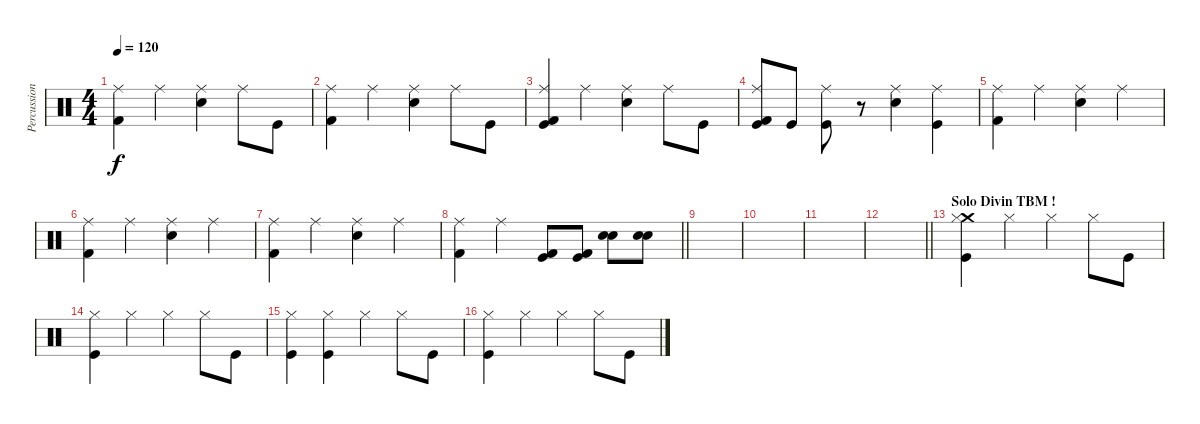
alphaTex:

\track ("Percussions" "Percussion") {instrument percussion}
\staff {score}
\articulation defaults
\ts (4 4)
\tempo 120
\clef neutral
\ks c
("Kick (hit) 2" "Ride (middle)").4{dy f} "Ride (middle)".4 ("Electric Snare (hit)" "Ride (middle)").4 "Ride (middle)".8 "Kick (hit)".8 |
("Kick (hit) 2" "Ride (middle)").4 "Ride (middle)".4 ("Electric Snare (hit)" "Ride (middle)").4 "Ride (middle)".8 "Kick (hit)".8 |
("Kick (hit) 2" "Kick (hit)" "Ride (middle)").4 "Ride (middle)".4 ("Electric Snare (hit)" "Ride (middle)").4 "Ride (middle)".8 "Kick (hit)".8 |
("Kick (hit) 2" "Kick (hit)" "Ride (middle)").8 "Kick (hit)".8 ("Kick (hit)" "Ride (middle)").8 r.8 ("Electric Snare (hit)" "Ride (middle)").4 ("Kick (hit)" "Ride (middle)").4 |
("Kick (hit) 2" "Ride (middle)").4 "Ride (middle)".4 ("Electric Snare (hit)" "Ride (middle)").4 "Ride (middle)".4 |
("Kick (hit) 2" "Ride (middle)").4 "Ride (middle)".4 ("Electric Snare (hit)" "Ride (middle)").4 "Ride (middle)".4 |
("Kick (hit) 2" "Ride (middle)").4 "Ride (middle)".4 ("Electric Snare (hit)" "Ride (middle)").4 "Ride (middle)".4 |
\barLineRight lightlight
("Kick (hit) 2" "Ride (middle)").4 "Ride (middle)".4 ("Kick (hit) 2" "Kick (hit)").8 ("Kick (hit) 2" "Kick (hit)").8 ("Electric Snare (hit)" "Snare (hit) 2").8 ("Electric Snare (hit)" "Snare (hit) 2").8 |
|
|
|
\barLineRight lightlight
|
\section ("" "Solo Divin TBM !")
("Crash medium (hit)" "Kick (hit)" "Hi-Hat (closed)").4 "Hi-Hat (closed)".4 "Hi-Hat (closed)".4 "Hi-Hat (closed)".8 "Kick (hit)".8 |
("Kick (hit)" "Hi-Hat (closed)").4 "Hi-Hat (closed)".4 "Hi-Hat (closed)".4 "Hi-Hat (closed)".8 "Kick (hit)".8 |
("Kick (hit)" "Hi-Hat (closed)").4 ("Kick (hit)" "Hi-Hat (closed)").4 "Hi-Hat (closed)".4 "Hi-Hat (closed)".8 "Kick (hit)".8 |
("Kick (hit)" "Hi-Hat (closed)").4 "Hi-Hat (closed)".4 "Hi-Hat (closed)".4 "Hi-Hat (closed)".8 "Kick (hit)".8
